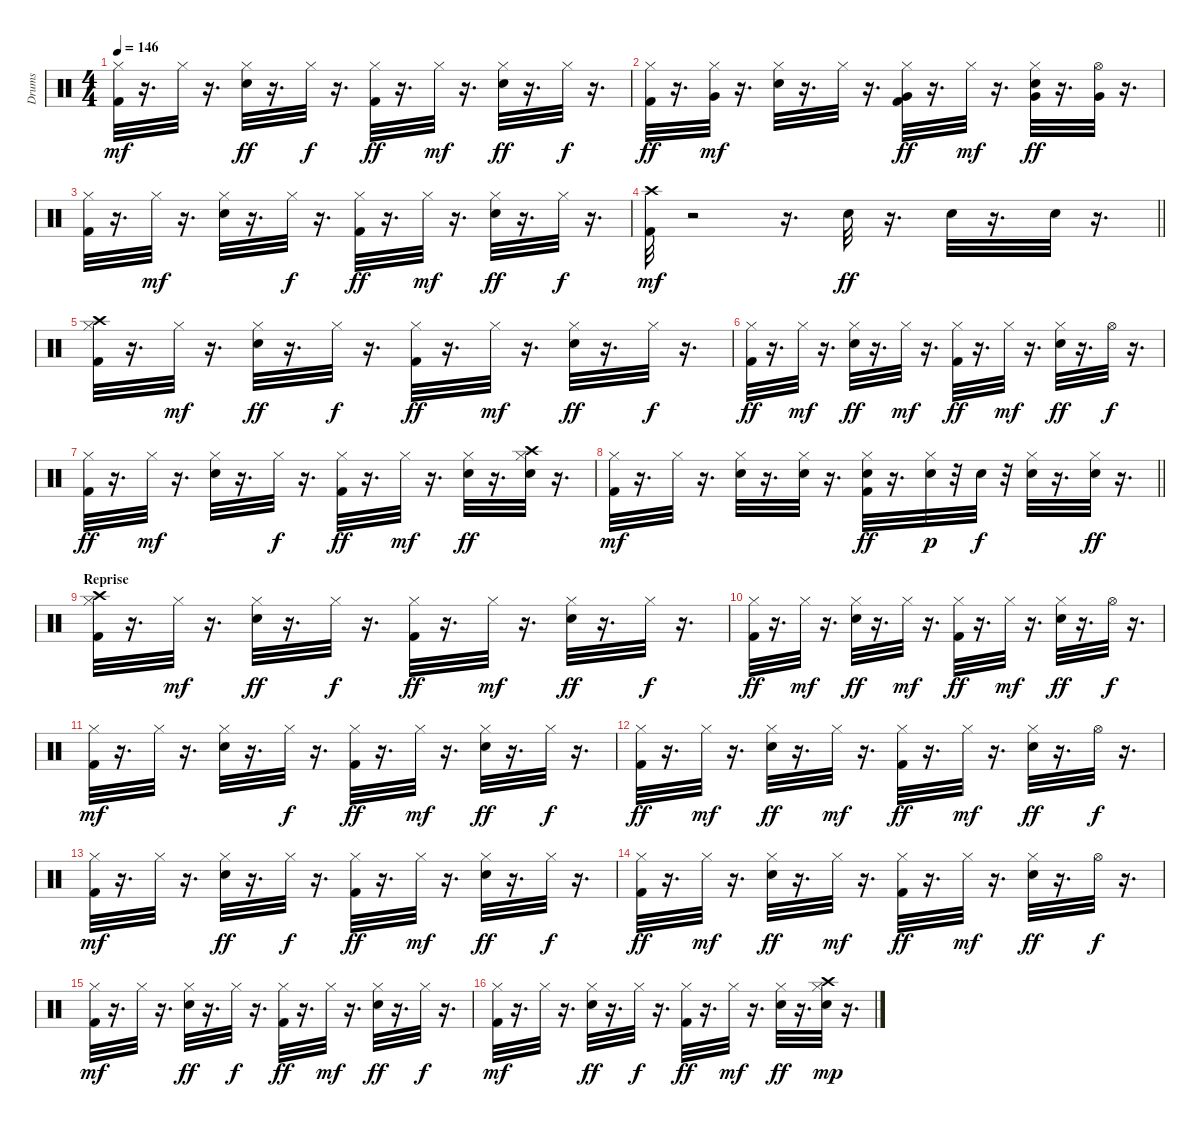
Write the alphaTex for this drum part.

\track ("Drums" "Drums") {instrument percussion}
\staff {score}
\articulation defaults
\ts (4 4)
\tempo 146
\clef neutral
\ks c
("Kick (hit) 2" "Hi-Hat (closed)").32{dy mf} r.16{d} "Hi-Hat (closed)".32 r.16{d} ("Hi-Hat (closed)" "Snare (hit) 2").32{dy ff} r.16{d} "Hi-Hat (closed)".32{dy f} r.16{d} ("Hi-Hat (closed)" "Kick (hit) 2").32{dy ff} r.16{d} "Hi-Hat (closed)".32{dy mf} r.16{d} ("Hi-Hat (closed)" "Snare (hit) 2").32{dy ff} r.16{d} "Hi-Hat (closed)".32{dy f} r.16{d} |
("Hi-Hat (closed)" "Kick (hit) 2").32{dy ff} r.16{d} ("Hi-Hat (closed)" "Very Low Tom (hit)").32{dy mf} r.16{d} ("Snare (hit) 2" "Hi-Hat (closed)").32 r.16{d} "Hi-Hat (closed)".32 r.16{d} ("Kick (hit) 2" "Hi-Hat (closed)" "Very Low Tom (hit)").32{dy ff} r.16{d} "Hi-Hat (closed)".32{dy mf} r.16{d} ("Hi-Hat (closed)" "Snare (hit) 2" "Very Low Tom (hit)").32{dy ff} r.16{d} ("Very Low Tom (hit)" "Hi-Hat (open)").32 r.16{d} |
("Hi-Hat (closed)" "Kick (hit) 2").32 r.16{d} "Hi-Hat (closed)".32{dy mf} r.16{d} ("Snare (hit) 2" "Hi-Hat (closed)").32 r.16{d} "Hi-Hat (closed)".32{dy f} r.16{d} ("Hi-Hat (closed)" "Kick (hit) 2").32{dy ff} r.16{d} "Hi-Hat (closed)".32{dy mf} r.16{d} ("Hi-Hat (closed)" "Snare (hit) 2").32{dy ff} r.16{d} "Hi-Hat (closed)".32{dy f} r.16{d} |
\barLineRight lightlight
("Kick (hit) 2" "Crash high (hit)").32{dy mf} r.2 r.16{d} "Snare (hit) 2".32{dy ff} r.16{d} "Snare (hit) 2".32 r.16{d} "Snare (hit) 2".32 r.16{d} |
("Hi-Hat (closed)" "Kick (hit) 2" "Crash high (hit)").32 r.16{d} "Hi-Hat (closed)".32{dy mf} r.16{d} ("Hi-Hat (closed)" "Snare (hit) 2").32{dy ff} r.16{d} "Hi-Hat (closed)".32{dy f} r.16{d} ("Kick (hit) 2" "Hi-Hat (closed)").32{dy ff} r.16{d} "Hi-Hat (closed)".32{dy mf} r.16{d} ("Hi-Hat (closed)" "Snare (hit) 2").32{dy ff} r.16{d} "Hi-Hat (closed)".32{dy f} r.16{d} |
("Kick (hit) 2" "Hi-Hat (closed)").32{dy ff} r.16{d} "Hi-Hat (closed)".32{dy mf} r.16{d} ("Hi-Hat (closed)" "Snare (hit) 2").32{dy ff} r.16{d} "Hi-Hat (closed)".32{dy mf} r.16{d} ("Kick (hit) 2" "Hi-Hat (closed)").32{dy ff} r.16{d} "Hi-Hat (closed)".32{dy mf} r.16{d} ("Hi-Hat (closed)" "Snare (hit) 2").32{dy ff} r.16{d} "Hi-Hat (open)".32{dy f} r.16{d} |
("Hi-Hat (closed)" "Kick (hit) 2").32{dy ff} r.16{d} "Hi-Hat (closed)".32{dy mf} r.16{d} ("Snare (hit) 2" "Hi-Hat (closed)").32 r.16{d} "Hi-Hat (closed)".32{dy f} r.16{d} ("Kick (hit) 2" "Hi-Hat (closed)").32{dy ff} r.16{d} "Hi-Hat (closed)".32{dy mf} r.16{d} ("Snare (hit) 2" "Hi-Hat (closed)").32{dy ff} r.16{d} ("Hi-Hat (closed)" "Snare (hit) 2" "Crash high (hit)").32 r.16{d} |
\barLineRight lightlight
("Kick (hit) 2" "Hi-Hat (closed)").32{dy mf} r.16{d} "Hi-Hat (closed)".32 r.16{d} ("Hi-Hat (closed)" "Snare (hit) 2").32 r.16{d} ("Hi-Hat (closed)" "Snare (hit) 2").32 r.16{d} ("Kick (hit) 2" "Snare (hit) 2" "Hi-Hat (closed)").32{dy ff} r.16{d} ("Hi-Hat (closed)" "Snare (hit) 2").32{dy p} r.32 "Snare (hit) 2".32{dy f} r.32 ("Snare (hit) 2" "Hi-Hat (closed)").32 r.16{d} ("Snare (hit) 2" "Hi-Hat (closed)").32{dy ff} r.16{d} |
\section ("" "Reprise")
("Hi-Hat (closed)" "Kick (hit) 2" "Crash high (hit)").32 r.16{d} "Hi-Hat (closed)".32{dy mf} r.16{d} ("Hi-Hat (closed)" "Snare (hit) 2").32{dy ff} r.16{d} "Hi-Hat (closed)".32{dy f} r.16{d} ("Kick (hit) 2" "Hi-Hat (closed)").32{dy ff} r.16{d} "Hi-Hat (closed)".32{dy mf} r.16{d} ("Snare (hit) 2" "Hi-Hat (closed)").32{dy ff} r.16{d} "Hi-Hat (closed)".32{dy f} r.16{d} |
("Kick (hit) 2" "Hi-Hat (closed)").32{dy ff} r.16{d} "Hi-Hat (closed)".32{dy mf} r.16{d} ("Hi-Hat (closed)" "Snare (hit) 2").32{dy ff} r.16{d} "Hi-Hat (closed)".32{dy mf} r.16{d} ("Kick (hit) 2" "Hi-Hat (closed)").32{dy ff} r.16{d} "Hi-Hat (closed)".32{dy mf} r.16{d} ("Hi-Hat (closed)" "Snare (hit) 2").32{dy ff} r.16{d} "Hi-Hat (open)".32{dy f} r.16{d} |
("Kick (hit) 2" "Hi-Hat (closed)").32{dy mf} r.16{d} "Hi-Hat (closed)".32 r.16{d} ("Snare (hit) 2" "Hi-Hat (closed)").32 r.16{d} "Hi-Hat (closed)".32{dy f} r.16{d} ("Kick (hit) 2" "Hi-Hat (closed)").32{dy ff} r.16{d} "Hi-Hat (closed)".32{dy mf} r.16{d} ("Hi-Hat (closed)" "Snare (hit) 2").32{dy ff} r.16{d} "Hi-Hat (closed)".32{dy f} r.16{d} |
("Hi-Hat (closed)" "Kick (hit) 2").32{dy ff} r.16{d} "Hi-Hat (closed)".32{dy mf} r.16{d} ("Hi-Hat (closed)" "Snare (hit) 2").32{dy ff} r.16{d} "Hi-Hat (closed)".32{dy mf} r.16{d} ("Hi-Hat (closed)" "Kick (hit) 2").32{dy ff} r.16{d} "Hi-Hat (closed)".32{dy mf} r.16{d} ("Snare (hit) 2" "Hi-Hat (closed)").32{dy ff} r.16{d} "Hi-Hat (open)".32{dy f} r.16{d} |
("Kick (hit) 2" "Hi-Hat (closed)").32{dy mf} r.16{d} "Hi-Hat (closed)".32 r.16{d} ("Hi-Hat (closed)" "Snare (hit) 2").32{dy ff} r.16{d} "Hi-Hat (closed)".32{dy f} r.16{d} ("Hi-Hat (closed)" "Kick (hit) 2").32{dy ff} r.16{d} "Hi-Hat (closed)".32{dy mf} r.16{d} ("Snare (hit) 2" "Hi-Hat (closed)").32{dy ff} r.16{d} "Hi-Hat (closed)".32{dy f} r.16{d} |
("Kick (hit) 2" "Hi-Hat (closed)").32{dy ff} r.16{d} "Hi-Hat (closed)".32{dy mf} r.16{d} ("Hi-Hat (closed)" "Snare (hit) 2").32{dy ff} r.16{d} "Hi-Hat (closed)".32{dy mf} r.16{d} ("Hi-Hat (closed)" "Kick (hit) 2").32{dy ff} r.16{d} "Hi-Hat (closed)".32{dy mf} r.16{d} ("Snare (hit) 2" "Hi-Hat (closed)").32{dy ff} r.16{d} "Hi-Hat (open)".32{dy f} r.16{d} |
("Kick (hit) 2" "Hi-Hat (closed)").32{dy mf} r.16{d} "Hi-Hat (closed)".32 r.16{d} ("Hi-Hat (closed)" "Snare (hit) 2").32{dy ff} r.16{d} "Hi-Hat (closed)".32{dy f} r.16{d} ("Hi-Hat (closed)" "Kick (hit) 2").32{dy ff} r.16{d} "Hi-Hat (closed)".32{dy mf} r.16{d} ("Snare (hit) 2" "Hi-Hat (closed)").32{dy ff} r.16{d} "Hi-Hat (closed)".32{dy f} r.16{d} |
("Kick (hit) 2" "Hi-Hat (closed)").32{dy mf} r.16{d} "Hi-Hat (closed)".32 r.16{d} ("Hi-Hat (closed)" "Snare (hit) 2").32{dy ff} r.16{d} "Hi-Hat (closed)".32{dy f} r.16{d} ("Kick (hit) 2" "Hi-Hat (closed)").32{dy ff} r.16{d} "Hi-Hat (closed)".32{dy mf} r.16{d} ("Snare (hit) 2" "Hi-Hat (closed)").32{dy ff} r.16{d} ("Hi-Hat (closed)" "Snare (hit) 2" "Crash high (hit)").32{dy mp} r.16{d}
